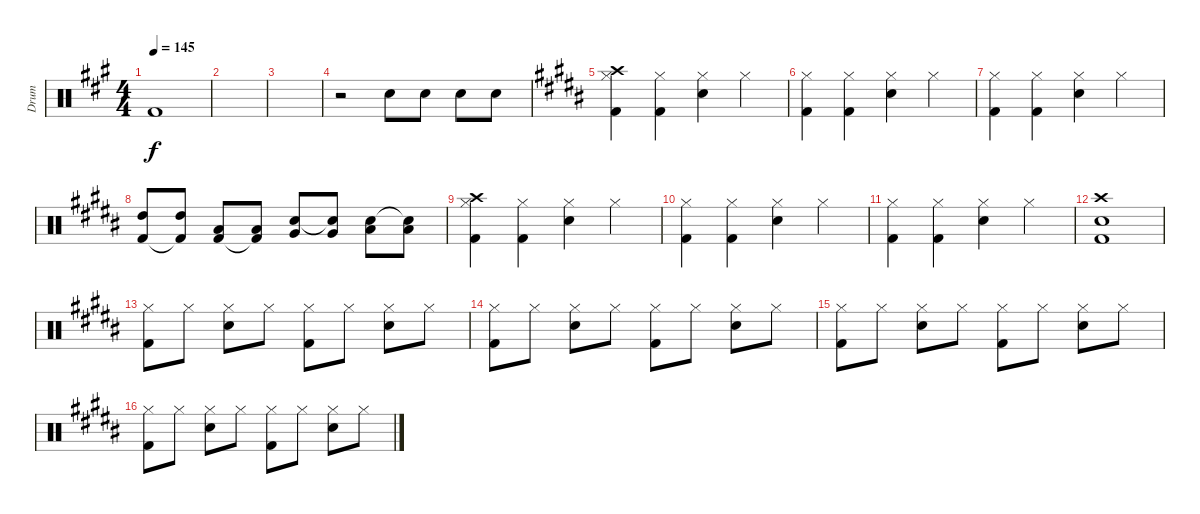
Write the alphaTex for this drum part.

\track ("Drum" "Drum") {instrument percussion}
\staff {score}
\articulation defaults
\ts (4 4)
\tempo 145
\clef neutral
\ks a "Kick (hit) 2".1{dy f}
|
|
|
r.2 "Electric Snare (hit)".8 "Electric Snare (hit)".8 "Electric Snare (hit)".8 "Electric Snare (hit)".8 |
\ks b
("Hi-Hat (closed)" "Kick (hit) 2" "Crash high (hit)").4 ("Hi-Hat (closed)" "Kick (hit) 2").4 ("Hi-Hat (closed)" "Electric Snare (hit)").4 "Hi-Hat (closed)".4 |
("Hi-Hat (closed)" "Kick (hit) 2").4 ("Hi-Hat (closed)" "Kick (hit) 2").4 ("Hi-Hat (closed)" "Electric Snare (hit)").4 "Hi-Hat (closed)".4 |
("Hi-Hat (closed)" "Kick (hit) 2").4 ("Hi-Hat (closed)" "Kick (hit) 2").4 ("Hi-Hat (closed)" "Electric Snare (hit)").4 "Hi-Hat (closed)".4 |
("High Tom (hit)" "Kick (hit) 2").8 ("High Tom (hit)" "Kick (hit) 2"{t}).8 ("Low Tom (hit)" "Kick (hit) 2").8 ("Low Tom (hit)" "Kick (hit) 2"{t}).8 ("Very Low Tom (hit)" "Electric Snare (hit)").8 ("Very Low Tom (hit)" "Electric Snare (hit)"{t}).8 ("Low Floor Tom (hit)" "Electric Snare (hit)").8 ("Low Floor Tom (hit)" "Electric Snare (hit)"{t}).8 |
("Hi-Hat (closed)" "Kick (hit) 2" "Crash high (hit)").4 ("Hi-Hat (closed)" "Kick (hit) 2").4 ("Hi-Hat (closed)" "Electric Snare (hit)").4 "Hi-Hat (closed)".4 |
("Hi-Hat (closed)" "Kick (hit) 2").4 ("Hi-Hat (closed)" "Kick (hit) 2").4 ("Hi-Hat (closed)" "Electric Snare (hit)").4 "Hi-Hat (closed)".4 |
("Hi-Hat (closed)" "Kick (hit) 2").4 ("Hi-Hat (closed)" "Kick (hit) 2").4 ("Hi-Hat (closed)" "Electric Snare (hit)").4 "Hi-Hat (closed)".4 |
("Crash high (hit)" "Kick (hit) 2" "Electric Snare (hit)").1 |
("Hi-Hat (closed)" "Kick (hit) 2").8 "Hi-Hat (closed)".8 ("Hi-Hat (closed)" "Electric Snare (hit)").8 "Hi-Hat (closed)".8 ("Hi-Hat (closed)" "Kick (hit) 2").8 "Hi-Hat (closed)".8 ("Hi-Hat (closed)" "Electric Snare (hit)").8 "Hi-Hat (closed)".8 |
("Hi-Hat (closed)" "Kick (hit) 2").8 "Hi-Hat (closed)".8 ("Hi-Hat (closed)" "Electric Snare (hit)").8 "Hi-Hat (closed)".8 ("Hi-Hat (closed)" "Kick (hit) 2").8 "Hi-Hat (closed)".8 ("Hi-Hat (closed)" "Electric Snare (hit)").8 "Hi-Hat (closed)".8 |
("Hi-Hat (closed)" "Kick (hit) 2").8 "Hi-Hat (closed)".8 ("Hi-Hat (closed)" "Electric Snare (hit)").8 "Hi-Hat (closed)".8 ("Hi-Hat (closed)" "Kick (hit) 2").8 "Hi-Hat (closed)".8 ("Hi-Hat (closed)" "Electric Snare (hit)").8 "Hi-Hat (closed)".8 |
("Hi-Hat (closed)" "Kick (hit) 2").8 "Hi-Hat (closed)".8 ("Hi-Hat (closed)" "Electric Snare (hit)").8 "Hi-Hat (closed)".8 ("Hi-Hat (closed)" "Kick (hit) 2").8 "Hi-Hat (closed)".8 ("Hi-Hat (closed)" "Electric Snare (hit)").8 "Hi-Hat (closed)".8
